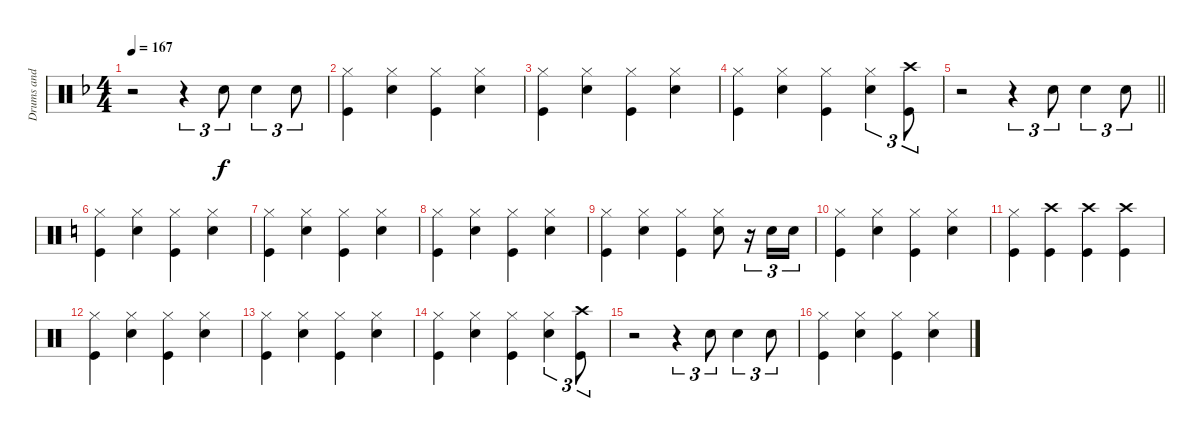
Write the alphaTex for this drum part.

\track ("Drums and percussion" "Drums and ") {instrument percussion}
\staff {score}
\articulation defaults
\ts (4 4)
\tempo 167
\clef neutral
\ks f
r.2{dy f} r.4{tu (3 2)} "Electric Snare (hit)".8{tu (3 2)} "Electric Snare (hit)".4{tu (3 2)} "Electric Snare (hit)".8{tu (3 2)} |
("Hi-Hat (closed)" "Kick (hit)").4 ("Hi-Hat (closed)" "Snare (hit) 2").4 ("Hi-Hat (closed)" "Kick (hit)").4 ("Hi-Hat (closed)" "Snare (hit) 2").4 |
("Hi-Hat (closed)" "Kick (hit)").4 ("Hi-Hat (closed)" "Snare (hit) 2").4 ("Hi-Hat (closed)" "Kick (hit)").4 ("Hi-Hat (closed)" "Snare (hit) 2").4 |
("Hi-Hat (closed)" "Kick (hit)").4 ("Hi-Hat (closed)" "Snare (hit) 2").4 ("Hi-Hat (closed)" "Kick (hit)").4 ("Hi-Hat (closed)" "Snare (hit) 2").4{tu (3 2)} ("Crash high (hit)" "Kick (hit)").8{tu (3 2)} |
\barLineRight lightlight
r.2 r.4{tu (3 2)} "Electric Snare (hit)".8{tu (3 2)} "Electric Snare (hit)".4{tu (3 2)} "Electric Snare (hit)".8{tu (3 2)} |
\ks c
("Hi-Hat (closed)" "Kick (hit)").4 ("Hi-Hat (closed)" "Snare (hit) 2").4 ("Hi-Hat (closed)" "Kick (hit)").4 ("Hi-Hat (closed)" "Snare (hit) 2").4 |
("Hi-Hat (closed)" "Kick (hit)").4 ("Hi-Hat (closed)" "Snare (hit) 2").4 ("Hi-Hat (closed)" "Kick (hit)").4 ("Hi-Hat (closed)" "Snare (hit) 2").4 |
("Hi-Hat (closed)" "Kick (hit)").4 ("Hi-Hat (closed)" "Snare (hit) 2").4 ("Hi-Hat (closed)" "Kick (hit)").4 ("Hi-Hat (closed)" "Snare (hit) 2").4 |
("Hi-Hat (closed)" "Kick (hit)").4 ("Hi-Hat (closed)" "Snare (hit) 2").4 ("Hi-Hat (closed)" "Kick (hit)").4 ("Hi-Hat (closed)" "Snare (hit) 2").8 r.16{tu (3 2)} "Snare (hit) 2".16{tu (3 2)} "Snare (hit) 2".16{tu (3 2)} |
("Hi-Hat (closed)" "Kick (hit)").4 ("Hi-Hat (closed)" "Snare (hit) 2").4 ("Hi-Hat (closed)" "Kick (hit)").4 ("Hi-Hat (closed)" "Snare (hit) 2").4 |
("Hi-Hat (closed)" "Kick (hit)").4 ("Crash high (hit)" "Kick (hit)").4 ("Crash high (hit)" "Kick (hit)").4 ("Crash high (hit)" "Kick (hit)").4 |
("Hi-Hat (closed)" "Kick (hit)").4 ("Hi-Hat (closed)" "Snare (hit) 2").4 ("Hi-Hat (closed)" "Kick (hit)").4 ("Hi-Hat (closed)" "Snare (hit) 2").4 |
("Hi-Hat (closed)" "Kick (hit)").4 ("Hi-Hat (closed)" "Snare (hit) 2").4 ("Hi-Hat (closed)" "Kick (hit)").4 ("Hi-Hat (closed)" "Snare (hit) 2").4 |
("Hi-Hat (closed)" "Kick (hit)").4 ("Hi-Hat (closed)" "Snare (hit) 2").4 ("Hi-Hat (closed)" "Kick (hit)").4 ("Hi-Hat (closed)" "Snare (hit) 2").4{tu (3 2)} ("Crash high (hit)" "Kick (hit)").8{tu (3 2)} |
r.2 r.4{tu (3 2)} "Electric Snare (hit)".8{tu (3 2)} "Electric Snare (hit)".4{tu (3 2)} "Electric Snare (hit)".8{tu (3 2)} |
("Hi-Hat (closed)" "Kick (hit)").4 ("Hi-Hat (closed)" "Snare (hit) 2").4 ("Hi-Hat (closed)" "Kick (hit)").4 ("Hi-Hat (closed)" "Snare (hit) 2").4
